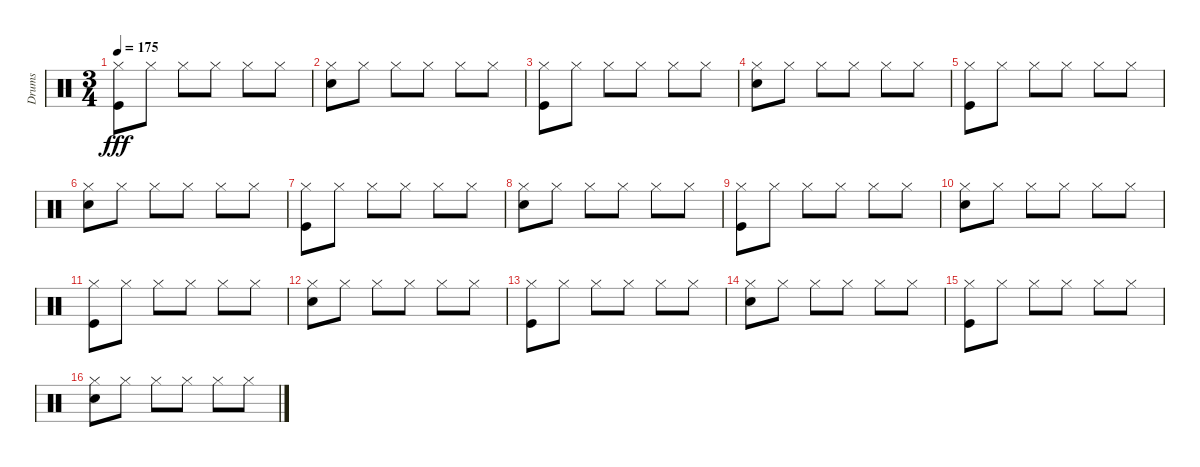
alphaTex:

\track ("Drums" "Drums") {instrument percussion}
\staff {score}
\articulation defaults
\ts (3 4)
\tempo 175
\clef neutral
\ks c
("Hi-Hat (closed)" "Kick (hit)").8{dy fff} "Hi-Hat (closed)".8 "Hi-Hat (closed)".8 "Hi-Hat (closed)".8 "Hi-Hat (closed)".8 "Hi-Hat (closed)".8 |
("Hi-Hat (closed)" "Snare (hit) 2").8 "Hi-Hat (closed)".8 "Hi-Hat (closed)".8 "Hi-Hat (closed)".8 "Hi-Hat (closed)".8 "Hi-Hat (closed)".8 |
("Hi-Hat (closed)" "Kick (hit)").8 "Hi-Hat (closed)".8 "Hi-Hat (closed)".8 "Hi-Hat (closed)".8 "Hi-Hat (closed)".8 "Hi-Hat (closed)".8 |
("Hi-Hat (closed)" "Snare (hit) 2").8 "Hi-Hat (closed)".8 "Hi-Hat (closed)".8 "Hi-Hat (closed)".8 "Hi-Hat (closed)".8 "Hi-Hat (closed)".8 |
("Hi-Hat (closed)" "Kick (hit)").8 "Hi-Hat (closed)".8 "Hi-Hat (closed)".8 "Hi-Hat (closed)".8 "Hi-Hat (closed)".8 "Hi-Hat (closed)".8 |
("Hi-Hat (closed)" "Snare (hit) 2").8 "Hi-Hat (closed)".8 "Hi-Hat (closed)".8 "Hi-Hat (closed)".8 "Hi-Hat (closed)".8 "Hi-Hat (closed)".8 |
("Hi-Hat (closed)" "Kick (hit)").8 "Hi-Hat (closed)".8 "Hi-Hat (closed)".8 "Hi-Hat (closed)".8 "Hi-Hat (closed)".8 "Hi-Hat (closed)".8 |
("Hi-Hat (closed)" "Snare (hit) 2").8 "Hi-Hat (closed)".8 "Hi-Hat (closed)".8 "Hi-Hat (closed)".8 "Hi-Hat (closed)".8 "Hi-Hat (closed)".8 |
("Hi-Hat (closed)" "Kick (hit)").8 "Hi-Hat (closed)".8 "Hi-Hat (closed)".8 "Hi-Hat (closed)".8 "Hi-Hat (closed)".8 "Hi-Hat (closed)".8 |
("Hi-Hat (closed)" "Snare (hit) 2").8 "Hi-Hat (closed)".8 "Hi-Hat (closed)".8 "Hi-Hat (closed)".8 "Hi-Hat (closed)".8 "Hi-Hat (closed)".8 |
("Hi-Hat (closed)" "Kick (hit)").8 "Hi-Hat (closed)".8 "Hi-Hat (closed)".8 "Hi-Hat (closed)".8 "Hi-Hat (closed)".8 "Hi-Hat (closed)".8 |
("Hi-Hat (closed)" "Snare (hit) 2").8 "Hi-Hat (closed)".8 "Hi-Hat (closed)".8 "Hi-Hat (closed)".8 "Hi-Hat (closed)".8 "Hi-Hat (closed)".8 |
("Hi-Hat (closed)" "Kick (hit)").8 "Hi-Hat (closed)".8 "Hi-Hat (closed)".8 "Hi-Hat (closed)".8 "Hi-Hat (closed)".8 "Hi-Hat (closed)".8 |
("Hi-Hat (closed)" "Snare (hit) 2").8 "Hi-Hat (closed)".8 "Hi-Hat (closed)".8 "Hi-Hat (closed)".8 "Hi-Hat (closed)".8 "Hi-Hat (closed)".8 |
("Hi-Hat (closed)" "Kick (hit)").8 "Hi-Hat (closed)".8 "Hi-Hat (closed)".8 "Hi-Hat (closed)".8 "Hi-Hat (closed)".8 "Hi-Hat (closed)".8 |
("Hi-Hat (closed)" "Snare (hit) 2").8 "Hi-Hat (closed)".8 "Hi-Hat (closed)".8 "Hi-Hat (closed)".8 "Hi-Hat (closed)".8 "Hi-Hat (closed)".8
